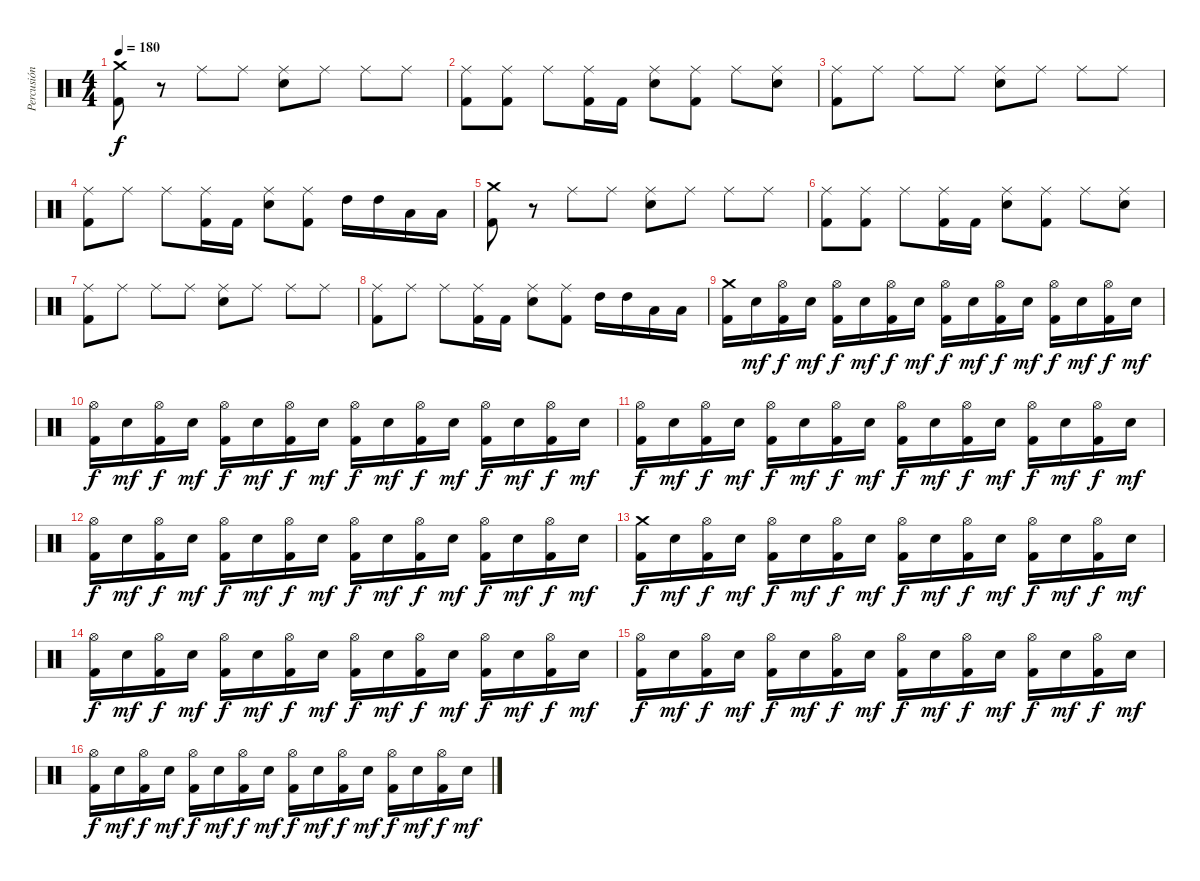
\track ("Percusión" "Percusión") {instrument percussion}
\staff {score}
\articulation defaults
\ts (4 4)
\tempo 180
\clef neutral
\ks c
("Crash medium (hit)" "Kick (hit) 2").8{dy f} r.8 "Ride (middle)".8 "Ride (middle)".8 ("Ride (middle)" "Electric Snare (hit)").8 "Ride (middle)".8 "Ride (middle)".8 "Ride (middle)".8 |
("Ride (middle)" "Kick (hit) 2").8 ("Ride (middle)" "Kick (hit) 2").8 "Ride (middle)".8 ("Ride (middle)" "Kick (hit) 2").16 "Kick (hit) 2".16 ("Ride (middle)" "Electric Snare (hit)").8 ("Ride (middle)" "Kick (hit) 2").8 "Ride (middle)".8 ("Ride (middle)" "Electric Snare (hit)").8 |
("Ride (middle)" "Kick (hit) 2").8 "Ride (middle)".8 "Ride (middle)".8 "Ride (middle)".8 ("Ride (middle)" "Electric Snare (hit)").8 "Ride (middle)".8 "Ride (middle)".8 "Ride (middle)".8 |
("Ride (middle)" "Kick (hit) 2").8 "Ride (middle)".8 "Ride (middle)".8 ("Ride (middle)" "Kick (hit) 2").16 "Kick (hit) 2".16 ("Ride (middle)" "Electric Snare (hit)").8 ("Ride (middle)" "Kick (hit) 2").8 "High Tom (hit)".16 "High Tom (hit)".16 "Low Tom (hit)".16 "Low Tom (hit)".16 |
("Crash medium (hit)" "Kick (hit) 2").8 r.8 "Ride (middle)".8 "Ride (middle)".8 ("Ride (middle)" "Electric Snare (hit)").8 "Ride (middle)".8 "Ride (middle)".8 "Ride (middle)".8 |
("Ride (middle)" "Kick (hit) 2").8 ("Ride (middle)" "Kick (hit) 2").8 "Ride (middle)".8 ("Ride (middle)" "Kick (hit) 2").16 "Kick (hit) 2".16 ("Ride (middle)" "Electric Snare (hit)").8 ("Ride (middle)" "Kick (hit) 2").8 "Ride (middle)".8 ("Ride (middle)" "Electric Snare (hit)").8 |
("Ride (middle)" "Kick (hit) 2").8 "Ride (middle)".8 "Ride (middle)".8 "Ride (middle)".8 ("Ride (middle)" "Electric Snare (hit)").8 "Ride (middle)".8 "Ride (middle)".8 "Ride (middle)".8 |
("Ride (middle)" "Kick (hit) 2").8 "Ride (middle)".8 "Ride (middle)".8 ("Ride (middle)" "Kick (hit) 2").16 "Kick (hit) 2".16 ("Ride (middle)" "Electric Snare (hit)").8 ("Ride (middle)" "Kick (hit) 2").8 "High Tom (hit)".16 "High Tom (hit)".16 "Low Tom (hit)".16 "Low Tom (hit)".16 |
("Crash medium (hit)" "Kick (hit) 2").16 "Electric Snare (hit)".16{dy mf} ("Hi-Hat (open)" "Kick (hit) 2").16{dy f} "Electric Snare (hit)".16{dy mf} ("Hi-Hat (open)" "Kick (hit) 2").16{dy f} "Electric Snare (hit)".16{dy mf} ("Hi-Hat (open)" "Kick (hit) 2").16{dy f} "Electric Snare (hit)".16{dy mf} ("Hi-Hat (open)" "Kick (hit) 2").16{dy f} "Electric Snare (hit)".16{dy mf} ("Hi-Hat (open)" "Kick (hit) 2").16{dy f} "Electric Snare (hit)".16{dy mf} ("Hi-Hat (open)" "Kick (hit) 2").16{dy f} "Electric Snare (hit)".16{dy mf} ("Hi-Hat (open)" "Kick (hit) 2").16{dy f} "Electric Snare (hit)".16{dy mf} |
("Hi-Hat (open)" "Kick (hit) 2").16{dy f} "Electric Snare (hit)".16{dy mf} ("Hi-Hat (open)" "Kick (hit) 2").16{dy f} "Electric Snare (hit)".16{dy mf} ("Hi-Hat (open)" "Kick (hit) 2").16{dy f} "Electric Snare (hit)".16{dy mf} ("Hi-Hat (open)" "Kick (hit) 2").16{dy f} "Electric Snare (hit)".16{dy mf} ("Hi-Hat (open)" "Kick (hit) 2").16{dy f} "Electric Snare (hit)".16{dy mf} ("Hi-Hat (open)" "Kick (hit) 2").16{dy f} "Electric Snare (hit)".16{dy mf} ("Hi-Hat (open)" "Kick (hit) 2").16{dy f} "Electric Snare (hit)".16{dy mf} ("Hi-Hat (open)" "Kick (hit) 2").16{dy f} "Electric Snare (hit)".16{dy mf} |
("Hi-Hat (open)" "Kick (hit) 2").16{dy f} "Electric Snare (hit)".16{dy mf} ("Hi-Hat (open)" "Kick (hit) 2").16{dy f} "Electric Snare (hit)".16{dy mf} ("Hi-Hat (open)" "Kick (hit) 2").16{dy f} "Electric Snare (hit)".16{dy mf} ("Hi-Hat (open)" "Kick (hit) 2").16{dy f} "Electric Snare (hit)".16{dy mf} ("Hi-Hat (open)" "Kick (hit) 2").16{dy f} "Electric Snare (hit)".16{dy mf} ("Hi-Hat (open)" "Kick (hit) 2").16{dy f} "Electric Snare (hit)".16{dy mf} ("Hi-Hat (open)" "Kick (hit) 2").16{dy f} "Electric Snare (hit)".16{dy mf} ("Hi-Hat (open)" "Kick (hit) 2").16{dy f} "Electric Snare (hit)".16{dy mf} |
("Hi-Hat (open)" "Kick (hit) 2").16{dy f} "Electric Snare (hit)".16{dy mf} ("Hi-Hat (open)" "Kick (hit) 2").16{dy f} "Electric Snare (hit)".16{dy mf} ("Hi-Hat (open)" "Kick (hit) 2").16{dy f} "Electric Snare (hit)".16{dy mf} ("Hi-Hat (open)" "Kick (hit) 2").16{dy f} "Electric Snare (hit)".16{dy mf} ("Hi-Hat (open)" "Kick (hit) 2").16{dy f} "Electric Snare (hit)".16{dy mf} ("Hi-Hat (open)" "Kick (hit) 2").16{dy f} "Electric Snare (hit)".16{dy mf} ("Hi-Hat (open)" "Kick (hit) 2").16{dy f} "Electric Snare (hit)".16{dy mf} ("Hi-Hat (open)" "Kick (hit) 2").16{dy f} "Electric Snare (hit)".16{dy mf} |
("Crash medium (hit)" "Kick (hit) 2").16{dy f} "Electric Snare (hit)".16{dy mf} ("Hi-Hat (open)" "Kick (hit) 2").16{dy f} "Electric Snare (hit)".16{dy mf} ("Hi-Hat (open)" "Kick (hit) 2").16{dy f} "Electric Snare (hit)".16{dy mf} ("Hi-Hat (open)" "Kick (hit) 2").16{dy f} "Electric Snare (hit)".16{dy mf} ("Hi-Hat (open)" "Kick (hit) 2").16{dy f} "Electric Snare (hit)".16{dy mf} ("Hi-Hat (open)" "Kick (hit) 2").16{dy f} "Electric Snare (hit)".16{dy mf} ("Hi-Hat (open)" "Kick (hit) 2").16{dy f} "Electric Snare (hit)".16{dy mf} ("Hi-Hat (open)" "Kick (hit) 2").16{dy f} "Electric Snare (hit)".16{dy mf} |
("Hi-Hat (open)" "Kick (hit) 2").16{dy f} "Electric Snare (hit)".16{dy mf} ("Hi-Hat (open)" "Kick (hit) 2").16{dy f} "Electric Snare (hit)".16{dy mf} ("Hi-Hat (open)" "Kick (hit) 2").16{dy f} "Electric Snare (hit)".16{dy mf} ("Hi-Hat (open)" "Kick (hit) 2").16{dy f} "Electric Snare (hit)".16{dy mf} ("Hi-Hat (open)" "Kick (hit) 2").16{dy f} "Electric Snare (hit)".16{dy mf} ("Hi-Hat (open)" "Kick (hit) 2").16{dy f} "Electric Snare (hit)".16{dy mf} ("Hi-Hat (open)" "Kick (hit) 2").16{dy f} "Electric Snare (hit)".16{dy mf} ("Hi-Hat (open)" "Kick (hit) 2").16{dy f} "Electric Snare (hit)".16{dy mf} |
("Hi-Hat (open)" "Kick (hit) 2").16{dy f} "Electric Snare (hit)".16{dy mf} ("Hi-Hat (open)" "Kick (hit) 2").16{dy f} "Electric Snare (hit)".16{dy mf} ("Hi-Hat (open)" "Kick (hit) 2").16{dy f} "Electric Snare (hit)".16{dy mf} ("Hi-Hat (open)" "Kick (hit) 2").16{dy f} "Electric Snare (hit)".16{dy mf} ("Hi-Hat (open)" "Kick (hit) 2").16{dy f} "Electric Snare (hit)".16{dy mf} ("Hi-Hat (open)" "Kick (hit) 2").16{dy f} "Electric Snare (hit)".16{dy mf} ("Hi-Hat (open)" "Kick (hit) 2").16{dy f} "Electric Snare (hit)".16{dy mf} ("Hi-Hat (open)" "Kick (hit) 2").16{dy f} "Electric Snare (hit)".16{dy mf} |
("Hi-Hat (open)" "Kick (hit) 2").16{dy f} "Electric Snare (hit)".16{dy mf} ("Hi-Hat (open)" "Kick (hit) 2").16{dy f} "Electric Snare (hit)".16{dy mf} ("Hi-Hat (open)" "Kick (hit) 2").16{dy f} "Electric Snare (hit)".16{dy mf} ("Hi-Hat (open)" "Kick (hit) 2").16{dy f} "Electric Snare (hit)".16{dy mf} ("Hi-Hat (open)" "Kick (hit) 2").16{dy f} "Electric Snare (hit)".16{dy mf} ("Hi-Hat (open)" "Kick (hit) 2").16{dy f} "Electric Snare (hit)".16{dy mf} ("Hi-Hat (open)" "Kick (hit) 2").16{dy f} "Electric Snare (hit)".16{dy mf} ("Hi-Hat (open)" "Kick (hit) 2").16{dy f} "Electric Snare (hit)".16{dy mf}
